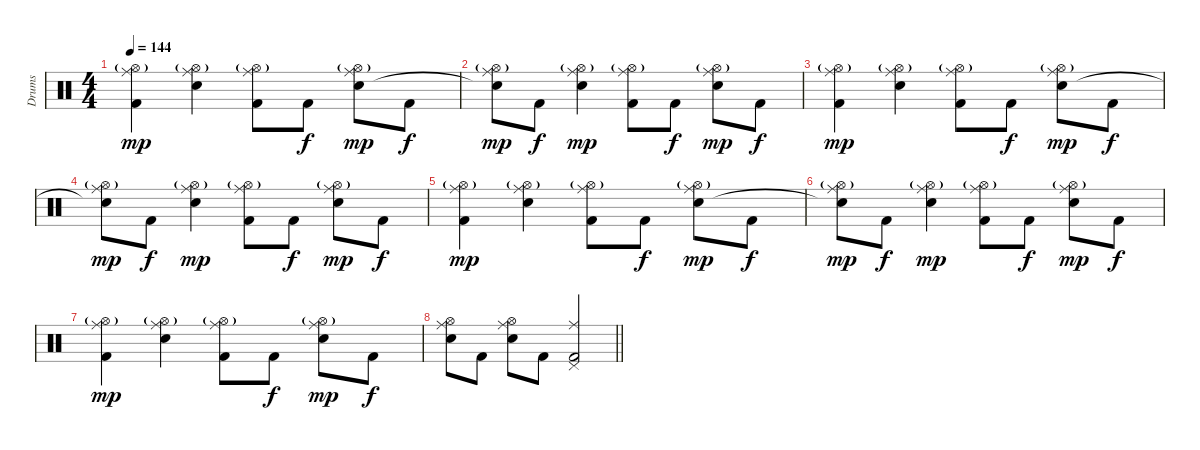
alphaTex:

\track ("Drums" "Drums") {instrument percussion}
\staff {score}
\articulation defaults
\ts (4 4)
\section ("" "")
\tempo 144
\clef neutral
\ks c
("Ride (middle)" "Hi-Hat (open)"{g} "Kick (hit) 2").4{dy mp} ("Ride (middle)" "Hi-Hat (open)"{g} "Electric Snare (hit)").4 ("Ride (middle)" "Hi-Hat (open)"{g} "Kick (hit) 2").8 "Kick (hit) 2".8{dy f} ("Ride (middle)" "Hi-Hat (open)"{g} "Electric Snare (hit)").8{dy mp} "Kick (hit) 2".8{dy f} |
("Ride (middle)" "Hi-Hat (open)"{g} "Snare (hit)"{t}).8{dy mp} "Kick (hit) 2".8{dy f} ("Ride (middle)" "Hi-Hat (open)"{g} "Electric Snare (hit)").4{dy mp} ("Ride (middle)" "Hi-Hat (open)"{g} "Kick (hit) 2").8 "Kick (hit) 2".8{dy f} ("Ride (middle)" "Hi-Hat (open)"{g} "Electric Snare (hit)").8{dy mp} "Kick (hit) 2".8{dy f} |
("Ride (middle)" "Hi-Hat (open)"{g} "Kick (hit) 2").4{dy mp} ("Ride (middle)" "Hi-Hat (open)"{g} "Electric Snare (hit)").4 ("Ride (middle)" "Hi-Hat (open)"{g} "Kick (hit) 2").8 "Kick (hit) 2".8{dy f} ("Ride (middle)" "Hi-Hat (open)"{g} "Electric Snare (hit)").8{dy mp} "Kick (hit) 2".8{dy f} |
("Ride (middle)" "Hi-Hat (open)"{g} "Snare (hit)"{t}).8{dy mp} "Kick (hit) 2".8{dy f} ("Ride (middle)" "Hi-Hat (open)"{g} "Electric Snare (hit)").4{dy mp} ("Ride (middle)" "Hi-Hat (open)"{g} "Kick (hit) 2").8 "Kick (hit) 2".8{dy f} ("Ride (middle)" "Hi-Hat (open)"{g} "Electric Snare (hit)").8{dy mp} "Kick (hit) 2".8{dy f} |
("Ride (middle)" "Hi-Hat (open)"{g} "Kick (hit) 2").4{dy mp} ("Ride (middle)" "Hi-Hat (open)"{g} "Electric Snare (hit)").4 ("Ride (middle)" "Hi-Hat (open)"{g} "Kick (hit) 2").8 "Kick (hit) 2".8{dy f} ("Ride (middle)" "Hi-Hat (open)"{g} "Electric Snare (hit)").8{dy mp} "Kick (hit) 2".8{dy f} |
("Ride (middle)" "Hi-Hat (open)"{g} "Snare (hit)"{t}).8{dy mp} "Kick (hit) 2".8{dy f} ("Ride (middle)" "Hi-Hat (open)"{g} "Electric Snare (hit)").4{dy mp} ("Ride (middle)" "Hi-Hat (open)"{g} "Kick (hit) 2").8 "Kick (hit) 2".8{dy f} ("Ride (middle)" "Hi-Hat (open)"{g} "Electric Snare (hit)").8{dy mp} "Kick (hit) 2".8{dy f} |
("Ride (middle)" "Hi-Hat (open)"{g} "Kick (hit) 2").4{dy mp} ("Ride (middle)" "Hi-Hat (open)"{g} "Electric Snare (hit)").4 ("Ride (middle)" "Hi-Hat (open)"{g} "Kick (hit) 2").8 "Kick (hit) 2".8{dy f} ("Ride (middle)" "Hi-Hat (open)"{g} "Electric Snare (hit)").8{dy mp} "Kick (hit) 2".8{dy f} |
\barLineRight lightlight
("Ride (middle)" "Hi-Hat (open)" "Electric Snare (hit)").8 "Kick (hit) 2".8 ("Ride (middle)" "Hi-Hat (open)" "Electric Snare (hit)").8 "Kick (hit) 2".8 ("Ride (middle)" "Pedal Hi-Hat (hit)" "Kick (hit) 2").2
